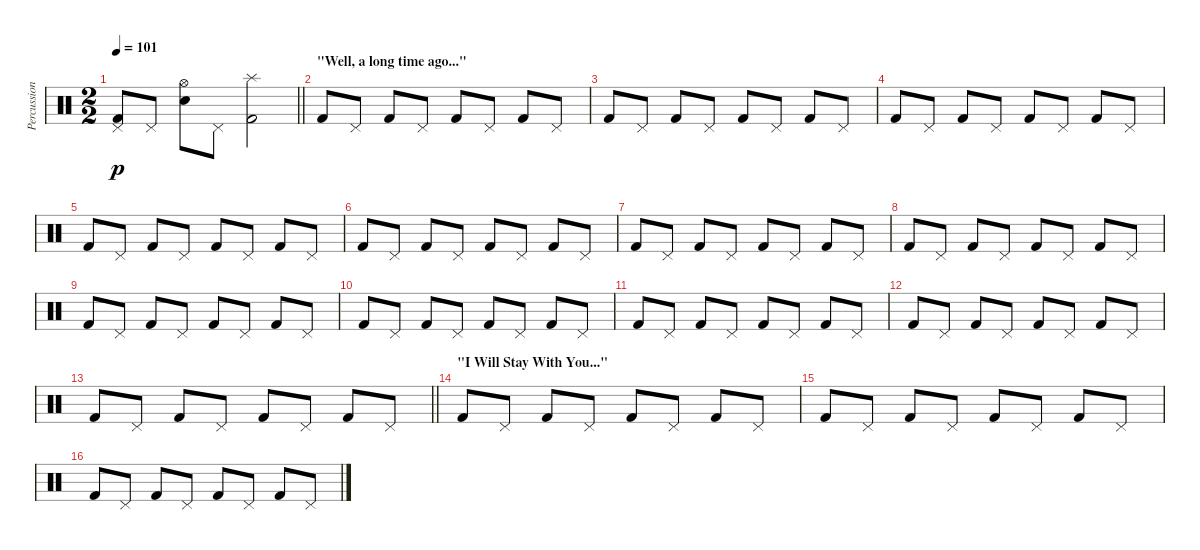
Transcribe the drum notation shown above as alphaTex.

\track ("Percussions" "Percussion") {instrument percussion}
\staff {score}
\articulation defaults
\ts (2 2)
\tempo 101
\clef neutral
\barLineRight lightlight
\ks c
("Kick (hit) 2" "Pedal Hi-Hat (hit)").8{dy p} "Pedal Hi-Hat (hit)".8 ("Snare (hit) 2" "Hi-Hat (open)").8 "Pedal Hi-Hat (hit)".8 ("Kick (hit) 2" "Splash (hit)").2 |
\section ("" "\"Well, a long time ago...\"")
"Kick (hit) 2".8 "Pedal Hi-Hat (hit)".8 "Kick (hit) 2".8 "Pedal Hi-Hat (hit)".8 "Kick (hit) 2".8 "Pedal Hi-Hat (hit)".8 "Kick (hit) 2".8 "Pedal Hi-Hat (hit)".8 |
"Kick (hit) 2".8 "Pedal Hi-Hat (hit)".8 "Kick (hit) 2".8 "Pedal Hi-Hat (hit)".8 "Kick (hit) 2".8 "Pedal Hi-Hat (hit)".8 "Kick (hit) 2".8 "Pedal Hi-Hat (hit)".8 |
"Kick (hit) 2".8 "Pedal Hi-Hat (hit)".8 "Kick (hit) 2".8 "Pedal Hi-Hat (hit)".8 "Kick (hit) 2".8 "Pedal Hi-Hat (hit)".8 "Kick (hit) 2".8 "Pedal Hi-Hat (hit)".8 |
"Kick (hit) 2".8 "Pedal Hi-Hat (hit)".8 "Kick (hit) 2".8 "Pedal Hi-Hat (hit)".8 "Kick (hit) 2".8 "Pedal Hi-Hat (hit)".8 "Kick (hit) 2".8 "Pedal Hi-Hat (hit)".8 |
"Kick (hit) 2".8 "Pedal Hi-Hat (hit)".8 "Kick (hit) 2".8 "Pedal Hi-Hat (hit)".8 "Kick (hit) 2".8 "Pedal Hi-Hat (hit)".8 "Kick (hit) 2".8 "Pedal Hi-Hat (hit)".8 |
"Kick (hit) 2".8 "Pedal Hi-Hat (hit)".8 "Kick (hit) 2".8 "Pedal Hi-Hat (hit)".8 "Kick (hit) 2".8 "Pedal Hi-Hat (hit)".8 "Kick (hit) 2".8 "Pedal Hi-Hat (hit)".8 |
"Kick (hit) 2".8 "Pedal Hi-Hat (hit)".8 "Kick (hit) 2".8 "Pedal Hi-Hat (hit)".8 "Kick (hit) 2".8 "Pedal Hi-Hat (hit)".8 "Kick (hit) 2".8 "Pedal Hi-Hat (hit)".8 |
"Kick (hit) 2".8 "Pedal Hi-Hat (hit)".8 "Kick (hit) 2".8 "Pedal Hi-Hat (hit)".8 "Kick (hit) 2".8 "Pedal Hi-Hat (hit)".8 "Kick (hit) 2".8 "Pedal Hi-Hat (hit)".8 |
"Kick (hit) 2".8 "Pedal Hi-Hat (hit)".8 "Kick (hit) 2".8 "Pedal Hi-Hat (hit)".8 "Kick (hit) 2".8 "Pedal Hi-Hat (hit)".8 "Kick (hit) 2".8 "Pedal Hi-Hat (hit)".8 |
"Kick (hit) 2".8 "Pedal Hi-Hat (hit)".8 "Kick (hit) 2".8 "Pedal Hi-Hat (hit)".8 "Kick (hit) 2".8 "Pedal Hi-Hat (hit)".8 "Kick (hit) 2".8 "Pedal Hi-Hat (hit)".8 |
"Kick (hit) 2".8 "Pedal Hi-Hat (hit)".8 "Kick (hit) 2".8 "Pedal Hi-Hat (hit)".8 "Kick (hit) 2".8 "Pedal Hi-Hat (hit)".8 "Kick (hit) 2".8 "Pedal Hi-Hat (hit)".8 |
\barLineRight lightlight "Kick (hit) 2".8 "Pedal Hi-Hat (hit)".8 "Kick (hit) 2".8 "Pedal Hi-Hat (hit)".8 "Kick (hit) 2".8 "Pedal Hi-Hat (hit)".8 "Kick (hit) 2".8 "Pedal Hi-Hat (hit)".8
|
\section ("" "\"I Will Stay With You...\"")
"Kick (hit) 2".8 "Pedal Hi-Hat (hit)".8 "Kick (hit) 2".8 "Pedal Hi-Hat (hit)".8 "Kick (hit) 2".8 "Pedal Hi-Hat (hit)".8 "Kick (hit) 2".8 "Pedal Hi-Hat (hit)".8 |
"Kick (hit) 2".8 "Pedal Hi-Hat (hit)".8 "Kick (hit) 2".8 "Pedal Hi-Hat (hit)".8 "Kick (hit) 2".8 "Pedal Hi-Hat (hit)".8 "Kick (hit) 2".8 "Pedal Hi-Hat (hit)".8 |
"Kick (hit) 2".8 "Pedal Hi-Hat (hit)".8 "Kick (hit) 2".8 "Pedal Hi-Hat (hit)".8 "Kick (hit) 2".8 "Pedal Hi-Hat (hit)".8 "Kick (hit) 2".8 "Pedal Hi-Hat (hit)".8
